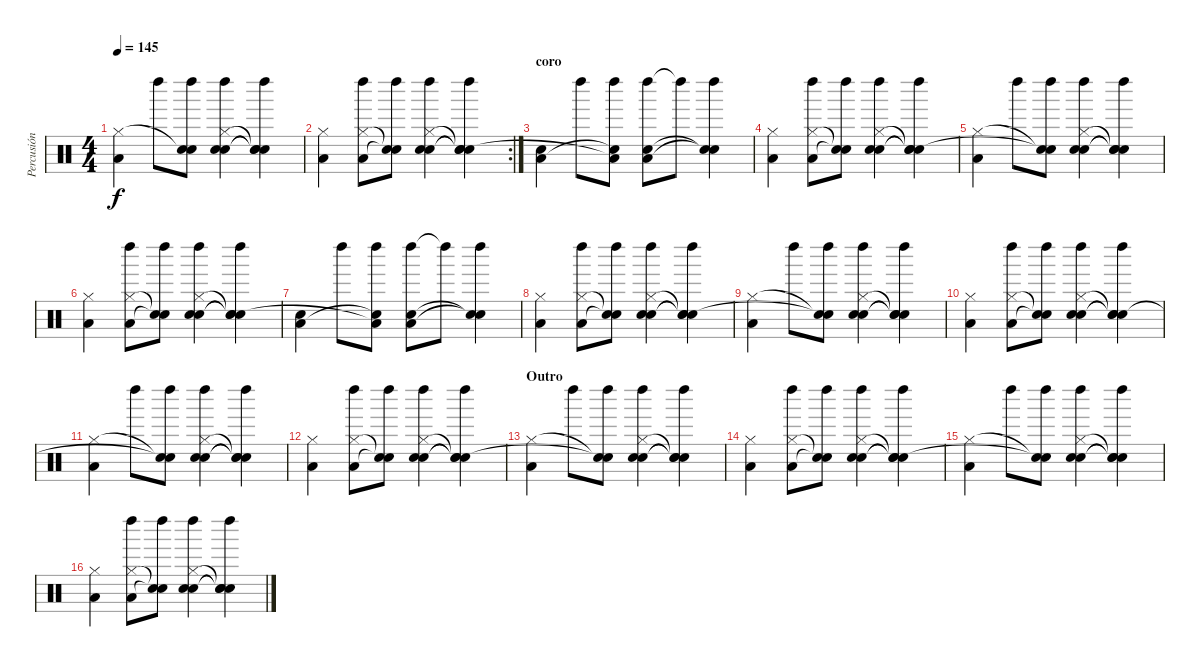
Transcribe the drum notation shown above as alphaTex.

\track ("Percusión" "Percusión") {instrument percussion}
\staff {score}
\articulation defaults
\ts (4 4)
\tempo 145
\clef neutral
\ks c
("Low Floor Tom (hit)" "Hi-Hat (closed)").4{dy f} "Left Maraca (hit)".8 ("Left Maraca (hit)" "Snare (hit)"{t} "Snare (hit)"{t}).8 ("Left Maraca (hit)" "Electric Snare (hit)" "Hi-Hat (closed)" "Snare (hit) 2").4 ("Left Maraca (hit)" "Snare (hit)"{t} "Snare (hit)"{t} "Snare (hit)"{t}).4 |
\rc 2
("Low Floor Tom (hit)" "Hi-Hat (closed)").4 ("Left Maraca (hit)" "Low Floor Tom (hit)" "Hi-Hat (closed)").8 ("Left Maraca (hit)" "Snare (hit)"{t} "Snare (hit)"{t}).8 ("Left Maraca (hit)" "Electric Snare (hit)" "Hi-Hat (closed)" "Snare (hit) 2").4 ("Left Maraca (hit)" "Snare (hit)"{t} "Snare (hit)"{t} "Snare (hit)"{t}).4 |
\section ("" "coro")
("Snare (hit) 2" "Low Floor Tom (hit)").4 "Left Maraca (hit)".8 ("Left Maraca (hit)" "Snare (hit)"{t} "Low Floor Tom (hit)"{t}).8 ("Left Maraca (hit)" "Snare (hit) 2" "Low Floor Tom (hit)").8 "Left Maraca (hit)"{t}.8 ("Left Maraca (hit)" "Snare (hit)"{t} "Snare (hit)"{t}).4 |
("Low Floor Tom (hit)" "Hi-Hat (closed)").4 ("Left Maraca (hit)" "Low Floor Tom (hit)" "Hi-Hat (closed)").8 ("Left Maraca (hit)" "Snare (hit)"{t} "Snare (hit)"{t}).8 ("Left Maraca (hit)" "Electric Snare (hit)" "Hi-Hat (closed)" "Snare (hit) 2").4 ("Left Maraca (hit)" "Snare (hit)"{t} "Snare (hit)"{t} "Snare (hit)"{t}).4 |
("Low Floor Tom (hit)" "Hi-Hat (closed)").4 "Left Maraca (hit)".8 ("Left Maraca (hit)" "Snare (hit)"{t} "Snare (hit)"{t}).8 ("Left Maraca (hit)" "Electric Snare (hit)" "Hi-Hat (closed)" "Snare (hit) 2").4 ("Left Maraca (hit)" "Snare (hit)"{t} "Snare (hit)"{t} "Snare (hit)"{t}).4 |
("Low Floor Tom (hit)" "Hi-Hat (closed)").4 ("Left Maraca (hit)" "Low Floor Tom (hit)" "Hi-Hat (closed)").8 ("Left Maraca (hit)" "Snare (hit)"{t} "Snare (hit)"{t}).8 ("Left Maraca (hit)" "Electric Snare (hit)" "Hi-Hat (closed)" "Snare (hit) 2").4 ("Left Maraca (hit)" "Snare (hit)"{t} "Snare (hit)"{t} "Snare (hit)"{t}).4 |
("Snare (hit) 2" "Low Floor Tom (hit)").4 "Left Maraca (hit)".8 ("Left Maraca (hit)" "Snare (hit)"{t} "Low Floor Tom (hit)"{t}).8 ("Left Maraca (hit)" "Snare (hit) 2" "Low Floor Tom (hit)").8 "Left Maraca (hit)"{t}.8 ("Left Maraca (hit)" "Snare (hit)"{t} "Snare (hit)"{t}).4 |
("Low Floor Tom (hit)" "Hi-Hat (closed)").4 ("Left Maraca (hit)" "Low Floor Tom (hit)" "Hi-Hat (closed)").8 ("Left Maraca (hit)" "Snare (hit)"{t} "Snare (hit)"{t}).8 ("Left Maraca (hit)" "Electric Snare (hit)" "Hi-Hat (closed)" "Snare (hit) 2").4 ("Left Maraca (hit)" "Snare (hit)"{t} "Snare (hit)"{t} "Snare (hit)"{t}).4 |
("Low Floor Tom (hit)" "Hi-Hat (closed)").4 "Left Maraca (hit)".8 ("Left Maraca (hit)" "Snare (hit)"{t} "Snare (hit)"{t}).8 ("Left Maraca (hit)" "Electric Snare (hit)" "Hi-Hat (closed)" "Snare (hit) 2").4 ("Left Maraca (hit)" "Snare (hit)"{t} "Snare (hit)"{t} "Snare (hit)"{t}).4 |
("Low Floor Tom (hit)" "Hi-Hat (closed)").4 ("Left Maraca (hit)" "Low Floor Tom (hit)" "Hi-Hat (closed)").8 ("Left Maraca (hit)" "Snare (hit)"{t} "Snare (hit)"{t}).8 ("Left Maraca (hit)" "Electric Snare (hit)" "Hi-Hat (closed)" "Snare (hit) 2").4 ("Left Maraca (hit)" "Snare (hit)"{t} "Snare (hit)"{t} "Snare (hit)"{t}).4 |
("Low Floor Tom (hit)" "Hi-Hat (closed)").4 "Left Maraca (hit)".8 ("Left Maraca (hit)" "Snare (hit)"{t} "Snare (hit)"{t}).8 ("Left Maraca (hit)" "Electric Snare (hit)" "Hi-Hat (closed)" "Snare (hit) 2").4 ("Left Maraca (hit)" "Snare (hit)"{t} "Snare (hit)"{t} "Snare (hit)"{t}).4 |
("Low Floor Tom (hit)" "Hi-Hat (closed)").4 ("Left Maraca (hit)" "Low Floor Tom (hit)" "Hi-Hat (closed)").8 ("Left Maraca (hit)" "Snare (hit)"{t} "Snare (hit)"{t}).8 ("Left Maraca (hit)" "Electric Snare (hit)" "Hi-Hat (closed)" "Snare (hit) 2").4 ("Left Maraca (hit)" "Snare (hit)"{t} "Snare (hit)"{t} "Snare (hit)"{t}).4 |
\section ("" "Outro")
("Low Floor Tom (hit)" "Hi-Hat (closed)").4 "Left Maraca (hit)".8 ("Left Maraca (hit)" "Snare (hit)"{t} "Snare (hit)"{t}).8 ("Left Maraca (hit)" "Electric Snare (hit)" "Hi-Hat (closed)" "Snare (hit) 2").4 ("Left Maraca (hit)" "Snare (hit)"{t} "Snare (hit)"{t} "Snare (hit)"{t}).4 |
("Low Floor Tom (hit)" "Hi-Hat (closed)").4 ("Left Maraca (hit)" "Low Floor Tom (hit)" "Hi-Hat (closed)").8 ("Left Maraca (hit)" "Snare (hit)"{t} "Snare (hit)"{t}).8 ("Left Maraca (hit)" "Electric Snare (hit)" "Hi-Hat (closed)" "Snare (hit) 2").4 ("Left Maraca (hit)" "Snare (hit)"{t} "Snare (hit)"{t} "Snare (hit)"{t}).4 |
("Low Floor Tom (hit)" "Hi-Hat (closed)").4 "Left Maraca (hit)".8 ("Left Maraca (hit)" "Snare (hit)"{t} "Snare (hit)"{t}).8 ("Left Maraca (hit)" "Electric Snare (hit)" "Hi-Hat (closed)" "Snare (hit) 2").4 ("Left Maraca (hit)" "Snare (hit)"{t} "Snare (hit)"{t} "Snare (hit)"{t}).4 |
("Low Floor Tom (hit)" "Hi-Hat (closed)").4 ("Left Maraca (hit)" "Low Floor Tom (hit)" "Hi-Hat (closed)").8 ("Left Maraca (hit)" "Snare (hit)"{t} "Snare (hit)"{t}).8 ("Left Maraca (hit)" "Electric Snare (hit)" "Hi-Hat (closed)" "Snare (hit) 2").4 ("Left Maraca (hit)" "Snare (hit)"{t} "Snare (hit)"{t} "Snare (hit)"{t}).4
